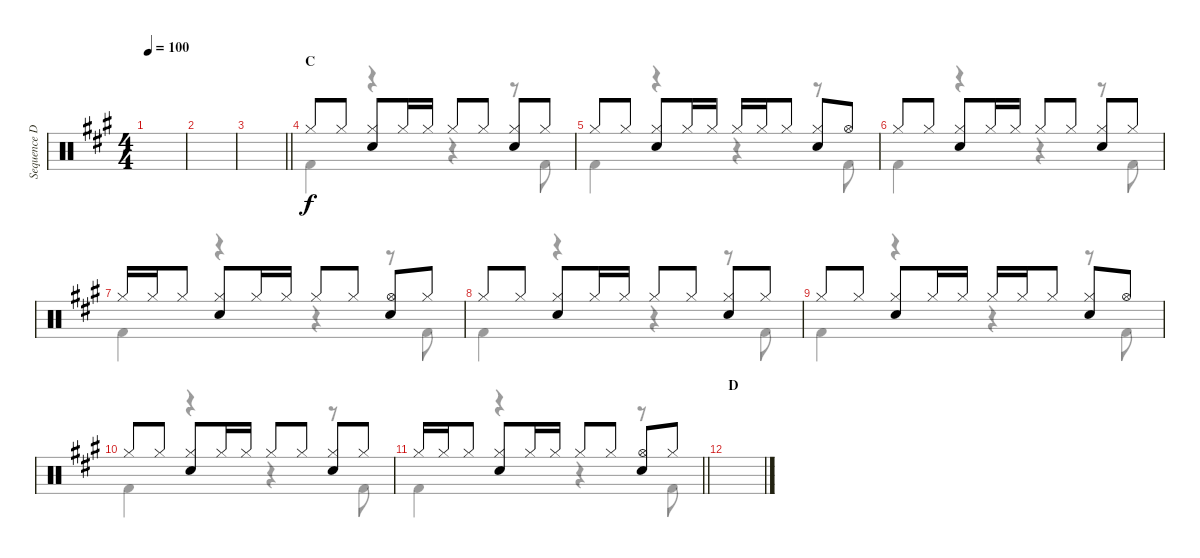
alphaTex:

\track ("Sequence Drums" "Sequence D") {instrument percussion}
\staff {score}
\articulation defaults
\voice
\ts (4 4)
\tempo 100
\clef neutral
\ks a
|
|
\barLineRight lightlight
|
\section ("" "C")
"Hi-Hat (closed)".8 "Hi-Hat (closed)".8 ("Hi-Hat (closed)" "Hand Clap (hit)").8 "Hi-Hat (closed)".16 "Hi-Hat (closed)".16 "Hi-Hat (closed)".8 "Hi-Hat (closed)".8 ("Hi-Hat (closed)" "Hand Clap (hit)").8 "Hi-Hat (closed)".8 |
"Hi-Hat (closed)".8 "Hi-Hat (closed)".8 ("Hi-Hat (closed)" "Hand Clap (hit)").8 "Hi-Hat (closed)".16 "Hi-Hat (closed)".16 "Hi-Hat (closed)".16 "Hi-Hat (closed)".16 "Hi-Hat (closed)".8 ("Hi-Hat (closed)" "Hand Clap (hit)").8 "Hi-Hat (open)".8 |
"Hi-Hat (closed)".8 "Hi-Hat (closed)".8 ("Hi-Hat (closed)" "Hand Clap (hit)").8 "Hi-Hat (closed)".16 "Hi-Hat (closed)".16 "Hi-Hat (closed)".8 "Hi-Hat (closed)".8 ("Hi-Hat (closed)" "Hand Clap (hit)").8 "Hi-Hat (closed)".8 |
"Hi-Hat (closed)".16 "Hi-Hat (closed)".16 "Hi-Hat (closed)".8 ("Hi-Hat (closed)" "Hand Clap (hit)").8 "Hi-Hat (closed)".16 "Hi-Hat (closed)".16 "Hi-Hat (closed)".8 "Hi-Hat (closed)".8 ("Hi-Hat (open)" "Hand Clap (hit)").8 "Hi-Hat (closed)".8 |
"Hi-Hat (closed)".8 "Hi-Hat (closed)".8 ("Hi-Hat (closed)" "Hand Clap (hit)").8 "Hi-Hat (closed)".16 "Hi-Hat (closed)".16 "Hi-Hat (closed)".8 "Hi-Hat (closed)".8 ("Hi-Hat (closed)" "Hand Clap (hit)").8 "Hi-Hat (closed)".8 |
"Hi-Hat (closed)".8 "Hi-Hat (closed)".8 ("Hi-Hat (closed)" "Hand Clap (hit)").8 "Hi-Hat (closed)".16 "Hi-Hat (closed)".16 "Hi-Hat (closed)".16 "Hi-Hat (closed)".16 "Hi-Hat (closed)".8 ("Hi-Hat (closed)" "Hand Clap (hit)").8 "Hi-Hat (open)".8 |
"Hi-Hat (closed)".8 "Hi-Hat (closed)".8 ("Hi-Hat (closed)" "Hand Clap (hit)").8 "Hi-Hat (closed)".16 "Hi-Hat (closed)".16 "Hi-Hat (closed)".8 "Hi-Hat (closed)".8 ("Hi-Hat (closed)" "Hand Clap (hit)").8 "Hi-Hat (closed)".8 |
\barLineRight lightlight "Hi-Hat (closed)".16 "Hi-Hat (closed)".16 "Hi-Hat (closed)".8
("Hi-Hat (closed)" "Hand Clap (hit)").8 "Hi-Hat (closed)".16 "Hi-Hat (closed)".16 "Hi-Hat (closed)".8 "Hi-Hat (closed)".8 ("Hi-Hat (open)" "Hand Clap (hit)").8 "Hi-Hat (closed)".8 |
\section ("" "D")
|
|
|
|
\voice
\clef neutral
\ottava regular
\simile none
\ks a
|
|
\barLineRight lightlight
|
"Kick (hit) 2".4 r.4 r.4 r.8 "Kick (hit) 2".8 |
"Kick (hit) 2".4 r.4 r.4 r.8 "Kick (hit) 2".8 |
"Kick (hit) 2".4 r.4 r.4 r.8 "Kick (hit) 2".8 |
"Kick (hit) 2".4 r.4 r.4 r.8 "Kick (hit) 2".8 |
"Kick (hit) 2".4 r.4 r.4 r.8 "Kick (hit) 2".8 |
"Kick (hit) 2".4 r.4 r.4 r.8 "Kick (hit) 2".8 |
"Kick (hit) 2".4 r.4 r.4 r.8 "Kick (hit) 2".8 |
\barLineRight lightlight "Kick (hit) 2".4
r.4 r.4 r.8 "Kick (hit) 2".8 |
|
|
|
|
